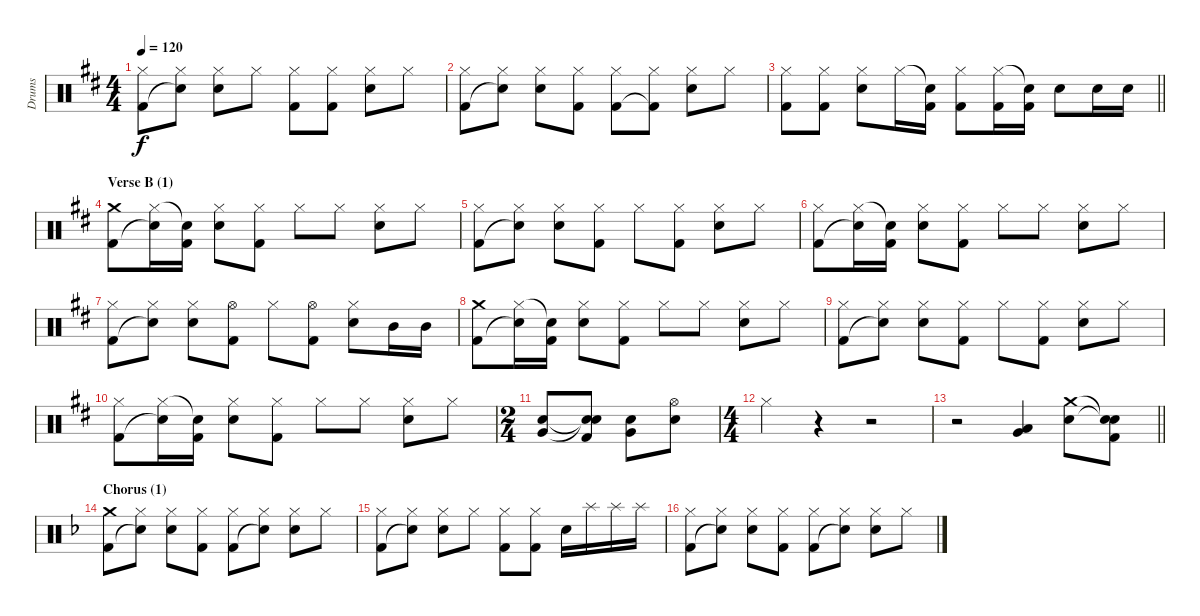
\track ("Drums" "Drums") {instrument percussion}
\staff {score}
\articulation defaults
\ts (4 4)
\tempo 120
\clef neutral
\ks d
("Hi-Hat (closed)" "Kick (hit) 2").8{dy f} ("Hi-Hat (closed)" "Snare (hit)"{t}).8 ("Hi-Hat (closed)" "Electric Snare (hit)").8 "Hi-Hat (closed)".8 ("Hi-Hat (closed)" "Kick (hit) 2").8 ("Hi-Hat (closed)" "Kick (hit) 2").8 ("Hi-Hat (closed)" "Electric Snare (hit)").8 "Hi-Hat (closed)".8 |
("Hi-Hat (closed)" "Kick (hit) 2").8 ("Hi-Hat (closed)" "Snare (hit)"{t}).8 ("Hi-Hat (closed)" "Electric Snare (hit)").8 ("Hi-Hat (closed)" "Kick (hit) 2").8 ("Hi-Hat (closed)" "Kick (hit) 2").8 ("Hi-Hat (closed)" "Kick (hit) 2"{t}).8 ("Hi-Hat (closed)" "Electric Snare (hit)").8 "Hi-Hat (closed)".8 |
\barLineRight lightlight
("Hi-Hat (closed)" "Kick (hit) 2").8 ("Hi-Hat (closed)" "Kick (hit) 2").8 ("Hi-Hat (closed)" "Electric Snare (hit)").8 "Hi-Hat (closed)".16 ("Snare (hit)"{t} "Kick (hit) 2").16 ("Hi-Hat (closed)" "Kick (hit) 2").8 ("Hi-Hat (closed)" "Kick (hit) 2").16 ("Snare (hit)"{t} "Kick (hit) 2").16 "Electric Snare (hit)".8 "Electric Snare (hit)".16 "Electric Snare (hit)".16 |
\section ("" "Verse B (1)")
("Crash medium (hit)" "Kick (hit) 2").8 ("Hi-Hat (closed)" "Snare (hit)"{t}).16 ("Snare (hit)"{t} "Kick (hit) 2").16 ("Hi-Hat (closed)" "Electric Snare (hit)").8 ("Hi-Hat (closed)" "Kick (hit) 2").8 "Hi-Hat (closed)".8 "Hi-Hat (closed)".8 ("Hi-Hat (closed)" "Electric Snare (hit)").8 "Hi-Hat (closed)".8 |
("Hi-Hat (closed)" "Kick (hit) 2").8 ("Hi-Hat (closed)" "Snare (hit)"{t}).8 ("Hi-Hat (closed)" "Electric Snare (hit)").8 ("Hi-Hat (closed)" "Kick (hit) 2").8 "Hi-Hat (closed)".8 ("Hi-Hat (closed)" "Kick (hit) 2").8 ("Hi-Hat (closed)" "Electric Snare (hit)").8 "Hi-Hat (closed)".8 |
("Hi-Hat (closed)" "Kick (hit) 2").8 ("Hi-Hat (closed)" "Snare (hit)"{t}).16 ("Snare (hit)"{t} "Kick (hit) 2").16 ("Hi-Hat (closed)" "Electric Snare (hit)").8 ("Hi-Hat (closed)" "Kick (hit) 2").8 "Hi-Hat (closed)".8 "Hi-Hat (closed)".8 ("Hi-Hat (closed)" "Electric Snare (hit)").8 "Hi-Hat (closed)".8 |
("Hi-Hat (closed)" "Kick (hit) 2").8 ("Hi-Hat (closed)" "Snare (hit)"{t}).8 ("Hi-Hat (closed)" "Electric Snare (hit)").8 ("Hi-Hat (open)" "Kick (hit) 2").8 "Hi-Hat (closed)".8 ("Hi-Hat (open)" "Kick (hit) 2").8 ("Hi-Hat (closed)" "Electric Snare (hit)").8 "Mid Tom (hit)".16 "Mid Tom (hit)".16 |
("Crash medium (hit)" "Kick (hit) 2").8 ("Hi-Hat (closed)" "Snare (hit)"{t}).16 ("Snare (hit)"{t} "Kick (hit) 2").16 ("Hi-Hat (closed)" "Electric Snare (hit)").8 ("Hi-Hat (closed)" "Kick (hit) 2").8 "Hi-Hat (closed)".8 "Hi-Hat (closed)".8 ("Hi-Hat (closed)" "Electric Snare (hit)").8 "Hi-Hat (closed)".8 |
("Hi-Hat (closed)" "Kick (hit) 2").8 ("Hi-Hat (closed)" "Snare (hit)"{t}).8 ("Hi-Hat (closed)" "Electric Snare (hit)").8 ("Hi-Hat (closed)" "Kick (hit) 2").8 "Hi-Hat (closed)".8 ("Hi-Hat (closed)" "Kick (hit) 2").8 ("Hi-Hat (closed)" "Electric Snare (hit)").8 "Hi-Hat (closed)".8 |
("Hi-Hat (closed)" "Kick (hit) 2").8 ("Hi-Hat (closed)" "Snare (hit)"{t}).16 ("Snare (hit)"{t} "Kick (hit) 2").16 ("Hi-Hat (closed)" "Electric Snare (hit)").8 ("Hi-Hat (closed)" "Kick (hit) 2").8 "Hi-Hat (closed)".8 "Hi-Hat (closed)".8 ("Hi-Hat (closed)" "Electric Snare (hit)").8 "Hi-Hat (closed)".8 |
\ts (2 4)
("Electric Snare (hit)" "Very Low Tom (hit)").8 ("Snare (hit)"{t} "Snare (hit)"{t} "Kick (hit) 2").8 ("Electric Snare (hit)" "Very Low Tom (hit)").8 ("Hi-Hat (open)" "Electric Snare (hit)").8 |
\ts (4 4)
"Hi-Hat (closed)".4 r.4 r.2 |
\barLineRight lightlight
r.2 ("Very Low Tom (hit)" "Low Floor Tom (hit)").4 ("Crash medium (hit)" "Electric Snare (hit)").8 ("Snare (hit)"{t} "Snare (hit)"{t} "Kick (hit) 2").8 |
\section ("" "Chorus (1)")
\ks dminor
("Crash medium (hit)" "Kick (hit) 2").8 ("Hi-Hat (closed)" "Snare (hit)"{t}).8 ("Hi-Hat (closed)" "Electric Snare (hit)").8 ("Hi-Hat (closed)" "Kick (hit) 2").8 ("Hi-Hat (closed)" "Kick (hit) 2").8 ("Hi-Hat (closed)" "Snare (hit)"{t}).8 ("Hi-Hat (closed)" "Electric Snare (hit)").8 "Hi-Hat (closed)".8 |
("Hi-Hat (closed)" "Kick (hit) 2").8 ("Hi-Hat (closed)" "Snare (hit)"{t}).8 ("Hi-Hat (closed)" "Electric Snare (hit)").8 "Hi-Hat (closed)".8 ("Hi-Hat (closed)" "Kick (hit) 2").8 ("Hi-Hat (closed)" "Kick (hit) 2").8 "Electric Snare (hit)".16 "Splash (hit)".16 "Splash (hit)".16 "Splash (hit)".16 |
("Hi-Hat (closed)" "Kick (hit) 2").8 ("Hi-Hat (closed)" "Snare (hit)"{t}).8 ("Hi-Hat (closed)" "Electric Snare (hit)").8 ("Hi-Hat (closed)" "Kick (hit) 2").8 ("Hi-Hat (closed)" "Kick (hit) 2").8 ("Hi-Hat (closed)" "Snare (hit)"{t}).8 ("Hi-Hat (closed)" "Electric Snare (hit)").8 "Hi-Hat (closed)".8
